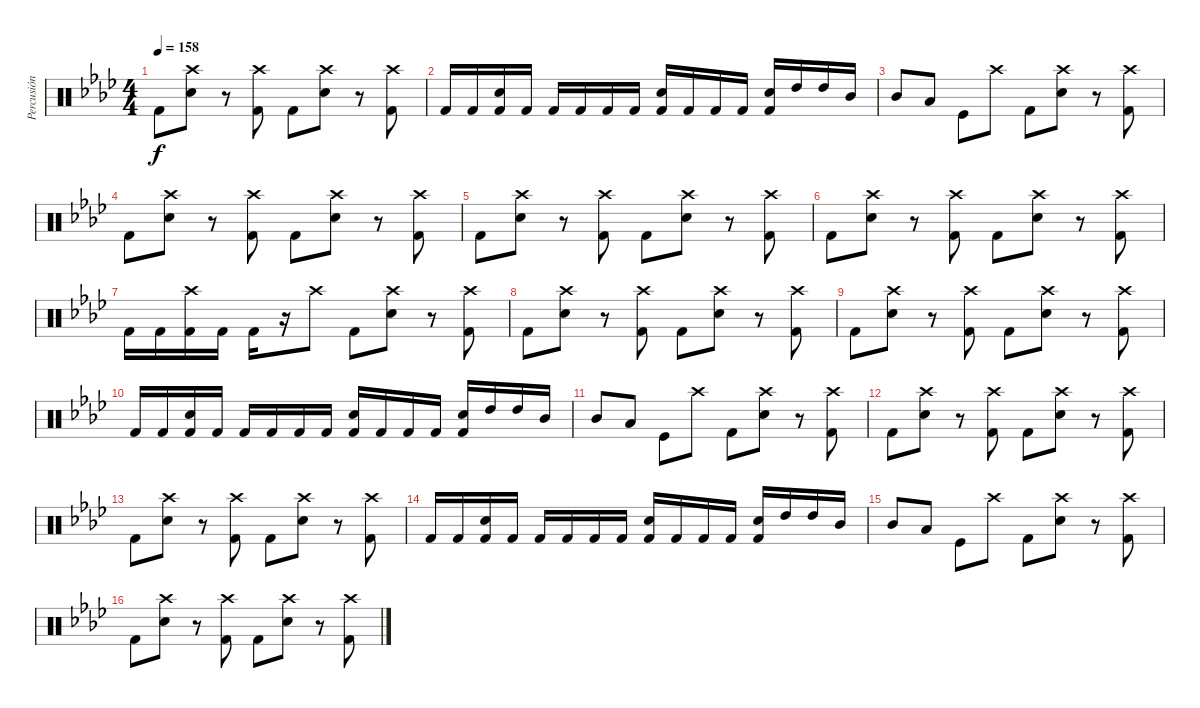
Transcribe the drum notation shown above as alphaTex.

\track ("Percusión" "Percusión") {instrument percussion}
\staff {score}
\articulation defaults
\ts (4 4)
\tempo 158
\clef neutral
\ks ab "Kick (hit) 2".8{dy f}
("Crash high (hit)" "Snare (hit) 2").8 r.8 ("Crash high (hit)" "Kick (hit) 2").8 "Kick (hit) 2".8 ("Crash high (hit)" "Snare (hit) 2").8 r.8 ("Crash high (hit)" "Kick (hit) 2").8 |
"Kick (hit) 2".16 "Kick (hit) 2".16 ("Snare (hit) 2" "Kick (hit) 2").16 "Kick (hit) 2".16 "Kick (hit) 2".16 "Kick (hit) 2".16 "Kick (hit) 2".16 "Kick (hit) 2".16 ("Snare (hit) 2" "Kick (hit) 2").16 "Kick (hit) 2".16 "Kick (hit) 2".16 "Kick (hit) 2".16 ("Snare (hit) 2" "Kick (hit) 2").16 "High Tom (hit)".16 "High Tom (hit)".16 "Mid Tom (hit)".16 |
"Mid Tom (hit)".8 "Low Tom (hit)".8 "Kick (hit)".8 "Crash high (hit)".8 "Kick (hit) 2".8 ("Crash high (hit)" "Snare (hit) 2").8 r.8 ("Crash high (hit)" "Kick (hit) 2").8 |
"Kick (hit) 2".8 ("Crash high (hit)" "Snare (hit) 2").8 r.8 ("Crash high (hit)" "Kick (hit) 2").8 "Kick (hit) 2".8 ("Crash high (hit)" "Snare (hit) 2").8 r.8 ("Crash high (hit)" "Kick (hit) 2").8 |
"Kick (hit) 2".8 ("Crash high (hit)" "Snare (hit) 2").8 r.8 ("Crash high (hit)" "Kick (hit) 2").8 "Kick (hit) 2".8 ("Crash high (hit)" "Snare (hit) 2").8 r.8 ("Crash high (hit)" "Kick (hit) 2").8 |
"Kick (hit) 2".8 ("Crash high (hit)" "Snare (hit) 2").8 r.8 ("Crash high (hit)" "Kick (hit) 2").8 "Kick (hit) 2".8 ("Crash high (hit)" "Snare (hit) 2").8 r.8 ("Crash high (hit)" "Kick (hit) 2").8 |
"Kick (hit) 2".16 "Kick (hit) 2".16 ("Crash high (hit)" "Kick (hit) 2").16 "Kick (hit) 2".16 "Kick (hit) 2".16 r.16 "Crash high (hit)".8 "Kick (hit) 2".8 ("Crash high (hit)" "Snare (hit) 2").8 r.8 ("Crash high (hit)" "Kick (hit) 2").8 |
"Kick (hit) 2".8 ("Crash high (hit)" "Snare (hit) 2").8 r.8 ("Crash high (hit)" "Kick (hit) 2").8 "Kick (hit) 2".8 ("Crash high (hit)" "Snare (hit) 2").8 r.8 ("Crash high (hit)" "Kick (hit) 2").8 |
"Kick (hit) 2".8 ("Crash high (hit)" "Snare (hit) 2").8 r.8 ("Crash high (hit)" "Kick (hit) 2").8 "Kick (hit) 2".8 ("Crash high (hit)" "Snare (hit) 2").8 r.8 ("Crash high (hit)" "Kick (hit) 2").8 |
"Kick (hit) 2".16 "Kick (hit) 2".16 ("Snare (hit) 2" "Kick (hit) 2").16 "Kick (hit) 2".16 "Kick (hit) 2".16 "Kick (hit) 2".16 "Kick (hit) 2".16 "Kick (hit) 2".16 ("Snare (hit) 2" "Kick (hit) 2").16 "Kick (hit) 2".16 "Kick (hit) 2".16 "Kick (hit) 2".16 ("Snare (hit) 2" "Kick (hit) 2").16 "High Tom (hit)".16 "High Tom (hit)".16 "Mid Tom (hit)".16 |
"Mid Tom (hit)".8 "Low Tom (hit)".8 "Kick (hit)".8 "Crash high (hit)".8 "Kick (hit) 2".8 ("Crash high (hit)" "Snare (hit) 2").8 r.8 ("Crash high (hit)" "Kick (hit) 2").8 |
"Kick (hit) 2".8 ("Crash high (hit)" "Snare (hit) 2").8 r.8 ("Crash high (hit)" "Kick (hit) 2").8 "Kick (hit) 2".8 ("Crash high (hit)" "Snare (hit) 2").8 r.8 ("Crash high (hit)" "Kick (hit) 2").8 |
"Kick (hit) 2".8 ("Crash high (hit)" "Snare (hit) 2").8 r.8 ("Crash high (hit)" "Kick (hit) 2").8 "Kick (hit) 2".8 ("Crash high (hit)" "Snare (hit) 2").8 r.8 ("Crash high (hit)" "Kick (hit) 2").8 |
"Kick (hit) 2".16 "Kick (hit) 2".16 ("Snare (hit) 2" "Kick (hit) 2").16 "Kick (hit) 2".16 "Kick (hit) 2".16 "Kick (hit) 2".16 "Kick (hit) 2".16 "Kick (hit) 2".16 ("Snare (hit) 2" "Kick (hit) 2").16 "Kick (hit) 2".16 "Kick (hit) 2".16 "Kick (hit) 2".16 ("Snare (hit) 2" "Kick (hit) 2").16 "High Tom (hit)".16 "High Tom (hit)".16 "Mid Tom (hit)".16 |
"Mid Tom (hit)".8 "Low Tom (hit)".8 "Kick (hit)".8 "Crash high (hit)".8 "Kick (hit) 2".8 ("Crash high (hit)" "Snare (hit) 2").8 r.8 ("Crash high (hit)" "Kick (hit) 2").8 |
"Kick (hit) 2".8 ("Crash high (hit)" "Snare (hit) 2").8 r.8 ("Crash high (hit)" "Kick (hit) 2").8 "Kick (hit) 2".8 ("Crash high (hit)" "Snare (hit) 2").8 r.8 ("Crash high (hit)" "Kick (hit) 2").8
